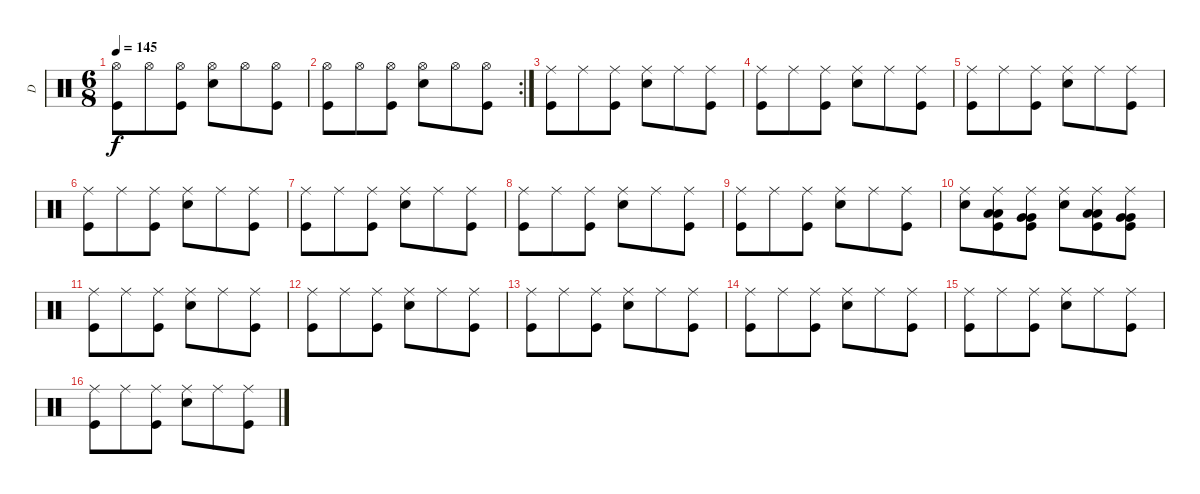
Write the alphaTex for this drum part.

\track ("D" "D") {instrument percussion}
\staff {score}
\articulation defaults
\ts (6 8)
\tempo 145
\clef neutral
\ks c
("Hi-Hat (open)" "Kick (hit)").8{dy f} "Hi-Hat (open)".8 ("Hi-Hat (open)" "Kick (hit)").8 ("Hi-Hat (open)" "Snare (hit) 2").8 "Hi-Hat (open)".8 ("Hi-Hat (open)" "Kick (hit)").8 |
\rc 2
("Hi-Hat (open)" "Kick (hit)").8 "Hi-Hat (open)".8 ("Hi-Hat (open)" "Kick (hit)").8 ("Hi-Hat (open)" "Snare (hit) 2").8 "Hi-Hat (open)".8 ("Hi-Hat (open)" "Kick (hit)").8 |
("Ride (middle)" "Kick (hit)").8 "Ride (middle)".8 ("Ride (middle)" "Kick (hit)").8 ("Ride (middle)" "Snare (hit) 2").8 "Ride (middle)".8 ("Ride (middle)" "Kick (hit)").8 |
("Ride (middle)" "Kick (hit)").8 "Ride (middle)".8 ("Ride (middle)" "Kick (hit)").8 ("Ride (middle)" "Snare (hit) 2").8 "Ride (middle)".8 ("Ride (middle)" "Kick (hit)").8 |
("Ride (middle)" "Kick (hit)").8 "Ride (middle)".8 ("Ride (middle)" "Kick (hit)").8 ("Ride (middle)" "Snare (hit) 2").8 "Ride (middle)".8 ("Ride (middle)" "Kick (hit)").8 |
("Ride (middle)" "Kick (hit)").8 "Ride (middle)".8 ("Ride (middle)" "Kick (hit)").8 ("Ride (middle)" "Snare (hit) 2").8 "Ride (middle)".8 ("Ride (middle)" "Kick (hit)").8 |
("Ride (middle)" "Kick (hit)").8 "Ride (middle)".8 ("Ride (middle)" "Kick (hit)").8 ("Ride (middle)" "Snare (hit) 2").8 "Ride (middle)".8 ("Ride (middle)" "Kick (hit)").8 |
("Ride (middle)" "Kick (hit)").8 "Ride (middle)".8 ("Ride (middle)" "Kick (hit)").8 ("Ride (middle)" "Snare (hit) 2").8 "Ride (middle)".8 ("Ride (middle)" "Kick (hit)").8 |
("Ride (middle)" "Kick (hit)").8 "Ride (middle)".8 ("Ride (middle)" "Kick (hit)").8 ("Ride (middle)" "Snare (hit) 2").8 "Ride (middle)".8 ("Ride (middle)" "Kick (hit)").8 |
("Ride (middle)" "Snare (hit) 2").8 ("Ride (middle)" "Low Tom (hit)" "Low Tom (hit)" "Kick (hit)").8 ("Ride (middle)" "Very Low Tom (hit)" "Very Low Tom (hit)" "Kick (hit)").8 ("Ride (middle)" "Snare (hit) 2").8 ("Ride (middle)" "Low Tom (hit)" "Low Tom (hit)" "Kick (hit)").8 ("Ride (middle)" "Very Low Tom (hit)" "Very Low Tom (hit)" "Kick (hit)").8 |
("Ride (middle)" "Kick (hit)").8 "Ride (middle)".8 ("Ride (middle)" "Kick (hit)").8 ("Ride (middle)" "Snare (hit) 2").8 "Ride (middle)".8 ("Ride (middle)" "Kick (hit)").8 |
("Ride (middle)" "Kick (hit)").8 "Ride (middle)".8 ("Ride (middle)" "Kick (hit)").8 ("Ride (middle)" "Snare (hit) 2").8 "Ride (middle)".8 ("Ride (middle)" "Kick (hit)").8 |
("Ride (middle)" "Kick (hit)").8 "Ride (middle)".8 ("Ride (middle)" "Kick (hit)").8 ("Ride (middle)" "Snare (hit) 2").8 "Ride (middle)".8 ("Ride (middle)" "Kick (hit)").8 |
("Ride (middle)" "Kick (hit)").8 "Ride (middle)".8 ("Ride (middle)" "Kick (hit)").8 ("Ride (middle)" "Snare (hit) 2").8 "Ride (middle)".8 ("Ride (middle)" "Kick (hit)").8 |
("Ride (middle)" "Kick (hit)").8 "Ride (middle)".8 ("Ride (middle)" "Kick (hit)").8 ("Ride (middle)" "Snare (hit) 2").8 "Ride (middle)".8 ("Ride (middle)" "Kick (hit)").8 |
("Ride (middle)" "Kick (hit)").8 "Ride (middle)".8 ("Ride (middle)" "Kick (hit)").8 ("Ride (middle)" "Snare (hit) 2").8 "Ride (middle)".8 ("Ride (middle)" "Kick (hit)").8
